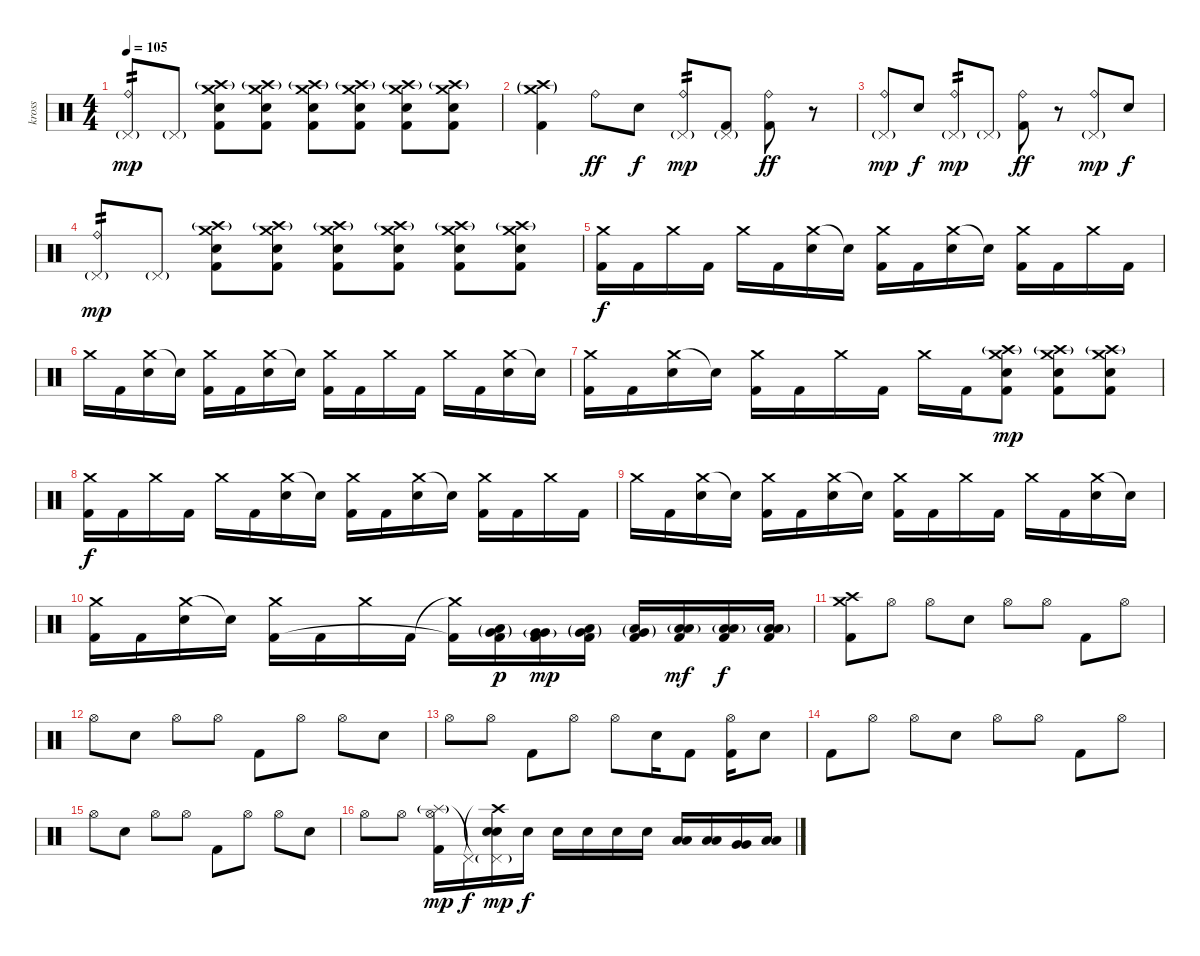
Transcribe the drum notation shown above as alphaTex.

\track ("kross" "kross") {instrument percussion}
\staff {score}
\articulation defaults
\ts (4 4)
\tempo 105
\clef neutral
\ks c
("Ride (bell)" "Pedal Hi-Hat (hit)"{g}).8{tp 2 dy mp} "Pedal Hi-Hat (hit)"{g}.8 ("Crash medium (hit)" "Crash high (hit)"{g} "Electric Snare (hit)" "Kick (hit) 2").8 ("Crash medium (hit)" "Crash high (hit)"{g} "Electric Snare (hit)" "Kick (hit) 2").8 ("Crash medium (hit)" "Crash high (hit)"{g} "Electric Snare (hit)" "Kick (hit) 2").8 ("Crash medium (hit)" "Crash high (hit)"{g} "Electric Snare (hit)" "Kick (hit) 2").8 ("Crash medium (hit)" "Crash high (hit)"{g} "Electric Snare (hit)" "Kick (hit) 2").8 ("Crash medium (hit)" "Crash high (hit)"{g} "Electric Snare (hit)" "Kick (hit) 2").8 |
("Crash medium (hit)"{g} "Crash high (hit)"{g} "Kick (hit) 2").4 "Ride (bell)".8{dy ff} "Electric Snare (hit)".8{dy f} ("Ride (bell)" "Pedal Hi-Hat (hit)"{g}).8{tp 2 dy mp} ("Pedal Hi-Hat (hit)"{g} "Kick (hit) 2").8 ("Ride (bell)" "Kick (hit) 2").8{dy ff} r.8 |
("Ride (bell)" "Pedal Hi-Hat (hit)"{g}).8{dy mp} "Electric Snare (hit)".8{dy f} ("Ride (bell)" "Pedal Hi-Hat (hit)"{g}).8{tp 2 dy mp} "Pedal Hi-Hat (hit)"{g}.8 ("Ride (bell)" "Kick (hit) 2").8{dy ff} r.8 ("Ride (bell)" "Pedal Hi-Hat (hit)"{g}).8{dy mp} "Electric Snare (hit)".8{dy f} |
("Ride (bell)" "Pedal Hi-Hat (hit)"{g}).8{tp 2 dy mp} "Pedal Hi-Hat (hit)"{g}.8 ("Crash medium (hit)" "Crash high (hit)"{g} "Electric Snare (hit)" "Kick (hit) 2").8 ("Crash medium (hit)" "Crash high (hit)"{g} "Electric Snare (hit)" "Kick (hit) 2").8 ("Crash medium (hit)" "Crash high (hit)"{g} "Electric Snare (hit)" "Kick (hit) 2").8 ("Crash medium (hit)" "Crash high (hit)"{g} "Electric Snare (hit)" "Kick (hit) 2").8 ("Crash medium (hit)" "Crash high (hit)"{g} "Electric Snare (hit)" "Kick (hit) 2").8 ("Crash medium (hit)" "Crash high (hit)"{g} "Electric Snare (hit)" "Kick (hit) 2").8 |
("Crash medium (hit)" "Kick (hit) 2").16{dy f} "Kick (hit) 2".16 "Crash medium (hit)".16 "Kick (hit) 2".16 "Crash medium (hit)".16 "Kick (hit) 2".16 ("Crash medium (hit)" "Electric Snare (hit)").16 "Snare (hit)"{t}.16 ("Crash medium (hit)" "Kick (hit) 2").16 "Kick (hit) 2".16 ("Crash medium (hit)" "Electric Snare (hit)").16 "Snare (hit)"{t}.16 ("Crash medium (hit)" "Kick (hit) 2").16 "Kick (hit) 2".16 "Crash medium (hit)".16 "Kick (hit) 2".16 |
"Crash medium (hit)".16 "Kick (hit) 2".16 ("Crash medium (hit)" "Electric Snare (hit)").16 "Snare (hit)"{t}.16 ("Crash medium (hit)" "Kick (hit) 2").16 "Kick (hit) 2".16 ("Crash medium (hit)" "Electric Snare (hit)").16 "Snare (hit)"{t}.16 ("Crash medium (hit)" "Kick (hit) 2").16 "Kick (hit) 2".16 "Crash medium (hit)".16 "Kick (hit) 2".16 "Crash medium (hit)".16 "Kick (hit) 2".16 ("Crash medium (hit)" "Electric Snare (hit)").16 "Snare (hit)"{t}.16 |
("Crash medium (hit)" "Kick (hit) 2").16 "Kick (hit) 2".16 ("Crash medium (hit)" "Electric Snare (hit)").16 "Snare (hit)"{t}.16 ("Crash medium (hit)" "Kick (hit) 2").16 "Kick (hit) 2".16 "Crash medium (hit)".16 "Kick (hit) 2".16 "Crash medium (hit)".16 "Kick (hit) 2".16 ("Crash medium (hit)" "Crash high (hit)"{g} "Electric Snare (hit)" "Kick (hit) 2").8{dy mp} ("Crash medium (hit)" "Crash high (hit)"{g} "Electric Snare (hit)" "Kick (hit) 2").8 ("Crash medium (hit)" "Crash high (hit)"{g} "Electric Snare (hit)" "Kick (hit) 2").8 |
("Crash medium (hit)" "Kick (hit) 2").16{dy f} "Kick (hit) 2".16 "Crash medium (hit)".16 "Kick (hit) 2".16 "Crash medium (hit)".16 "Kick (hit) 2".16 ("Crash medium (hit)" "Electric Snare (hit)").16 "Snare (hit)"{t}.16 ("Crash medium (hit)" "Kick (hit) 2").16 "Kick (hit) 2".16 ("Crash medium (hit)" "Electric Snare (hit)").16 "Snare (hit)"{t}.16 ("Crash medium (hit)" "Kick (hit) 2").16 "Kick (hit) 2".16 "Crash medium (hit)".16 "Kick (hit) 2".16 |
"Crash medium (hit)".16 "Kick (hit) 2".16 ("Crash medium (hit)" "Electric Snare (hit)").16 "Snare (hit)"{t}.16 ("Crash medium (hit)" "Kick (hit) 2").16 "Kick (hit) 2".16 ("Crash medium (hit)" "Electric Snare (hit)").16 "Snare (hit)"{t}.16 ("Crash medium (hit)" "Kick (hit) 2").16 "Kick (hit) 2".16 "Crash medium (hit)".16 "Kick (hit) 2".16 "Crash medium (hit)".16 "Kick (hit) 2".16 ("Crash medium (hit)" "Electric Snare (hit)").16 "Snare (hit)"{t}.16 |
("Crash medium (hit)" "Kick (hit) 2").16 "Kick (hit) 2".16 ("Crash medium (hit)" "Electric Snare (hit)").16 "Snare (hit)"{t}.16 ("Crash medium (hit)" "Kick (hit) 2").16 "Kick (hit) 2".16 "Crash medium (hit)".16 "Kick (hit) 2".16 ("Crash medium (hit)"{t} "Kick (hit) 2"{t}).16 ("Low Tom (hit)"{g} "Very Low Tom (hit)"{g} "Kick (hit) 2").16{dy p} ("Very Low Tom (hit)"{g} "Very Low Tom (hit)"{g} "Kick (hit) 2").16{dy mp} ("Very Low Tom (hit)"{g} "Low Floor Tom (hit)"{g} "Kick (hit) 2").16 ("Very Low Tom (hit)"{g} "Low Floor Tom (hit)"{g} "Kick (hit) 2").16 ("Low Floor Tom (hit)"{g} "Low Floor Tom (hit)"{g} "Kick (hit) 2").16{dy mf} ("Low Floor Tom (hit)"{g} "Low Floor Tom (hit)"{g} "Kick (hit) 2").16{dy f} ("Low Floor Tom (hit)"{g} "Low Floor Tom (hit)"{g} "Kick (hit) 2").16 |
("Crash medium (hit)" "Crash high (hit)" "Kick (hit) 2").8 "Hi-Hat (open)".8 "Hi-Hat (open)".8 "Electric Snare (hit)".8 "Hi-Hat (open)".8 "Hi-Hat (open)".8 "Kick (hit) 2".8 "Hi-Hat (open)".8 |
"Hi-Hat (open)".8 "Electric Snare (hit)".8 "Hi-Hat (open)".8 "Hi-Hat (open)".8 "Kick (hit) 2".8 "Hi-Hat (open)".8 "Hi-Hat (open)".8 "Electric Snare (hit)".8 |
"Hi-Hat (open)".8 "Hi-Hat (open)".8 "Kick (hit) 2".8 "Hi-Hat (open)".8 "Hi-Hat (open)".8 "Electric Snare (hit)".16 "Kick (hit) 2".8 ("Hi-Hat (open)" "Kick (hit) 2").16 "Electric Snare (hit)".8 |
"Kick (hit) 2".8 "Hi-Hat (open)".8 "Hi-Hat (open)".8 "Electric Snare (hit)".8 "Hi-Hat (open)".8 "Hi-Hat (open)".8 "Kick (hit) 2".8 "Hi-Hat (open)".8 |
"Hi-Hat (open)".8 "Electric Snare (hit)".8 "Hi-Hat (open)".8 "Hi-Hat (open)".8 "Kick (hit) 2".8 "Hi-Hat (open)".8 "Hi-Hat (open)".8 "Electric Snare (hit)".8 |
"Hi-Hat (open)".8 "Hi-Hat (open)".8 ("Splash (hit)"{g} "Hi-Hat (open)" "Kick (hit) 2").16{dy mp} "Pedal Hi-Hat (hit)"{t}.16{dy f} ("Crash high (hit)"{t} "Pedal Hi-Hat (hit)"{g} "Electric Snare (hit)" "Snare (hit)").16{dy mp} "Electric Snare (hit)".16{dy f} "Electric Snare (hit)".16 "Electric Snare (hit)".16 "Electric Snare (hit)".16 "Electric Snare (hit)".16 ("Low Tom (hit)" "Low Tom (hit)").16 ("Low Tom (hit)" "Low Tom (hit)").16 ("Very Low Tom (hit)" "Very Low Tom (hit)").16 ("Low Floor Tom (hit)" "Low Floor Tom (hit)").16
